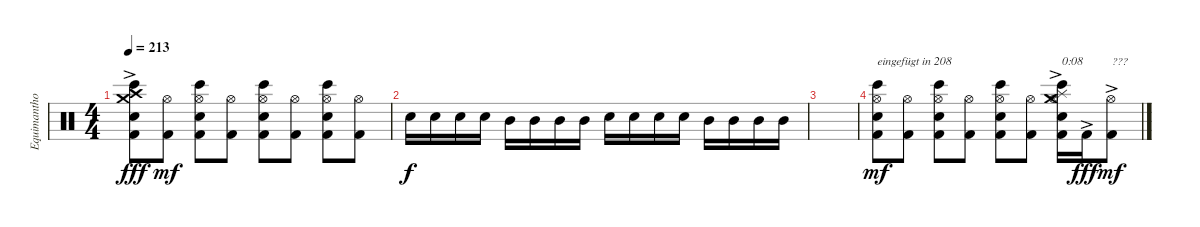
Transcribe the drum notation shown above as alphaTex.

\track ("Equimanthorn" "Equimantho") {instrument percussion}
\staff {score}
\articulation defaults
\ts (4 4)
\tempo 213
\clef neutral
\ks c
("Kick (hit) 2" "Bongo High (hit)" "Electric Snare (hit)" "Crash high (hit)"{ac} "Crash medium (hit)").8{dy fff} ("Kick (hit) 2" "Hi-Hat (open)").8{dy mf} ("Kick (hit) 2" "Bongo High (hit)" "Electric Snare (hit)" "Hi-Hat (open)").8 ("Kick (hit) 2" "Hi-Hat (open)").8 ("Kick (hit) 2" "Bongo High (hit)" "Electric Snare (hit)" "Hi-Hat (open)").8 ("Kick (hit) 2" "Hi-Hat (open)").8 ("Kick (hit) 2" "Bongo High (hit)" "Electric Snare (hit)" "Hi-Hat (open)").8 ("Kick (hit) 2" "Hi-Hat (open)").8 |
"Electric Snare (hit)".16{dy f} "Electric Snare (hit)".16 "Electric Snare (hit)".16 "Electric Snare (hit)".16 "Mid Tom (hit)".16 "Mid Tom (hit)".16 "Mid Tom (hit)".16 "Mid Tom (hit)".16 "Electric Snare (hit)".16 "Electric Snare (hit)".16 "Electric Snare (hit)".16 "Electric Snare (hit)".16 "Mid Tom (hit)".16 "Mid Tom (hit)".16 "Mid Tom (hit)".16 "Mid Tom (hit)".16 |
|
("Kick (hit) 2" "Bongo High (hit)" "Electric Snare (hit)" "Hi-Hat (open)").8{txt "eingefügt in 208" dy mf} ("Kick (hit) 2" "Hi-Hat (open)").8 ("Kick (hit) 2" "Bongo High (hit)" "Electric Snare (hit)" "Hi-Hat (open)").8 ("Kick (hit) 2" "Hi-Hat (open)").8 ("Kick (hit) 2" "Bongo High (hit)" "Electric Snare (hit)" "Hi-Hat (open)").8 ("Kick (hit) 2" "Hi-Hat (open)").8 ("Kick (hit) 2"{ac} "Bongo High (hit)" "Electric Snare (hit)" "Hi-Hat (open)" "Splash (hit)" "Crash medium (hit)").16{txt "0:08"} "Kick (hit) 2"{ac}.16{dy fff} ("Kick (hit) 2"{ac} "Hi-Hat (open)").8{txt "???" dy mf}
